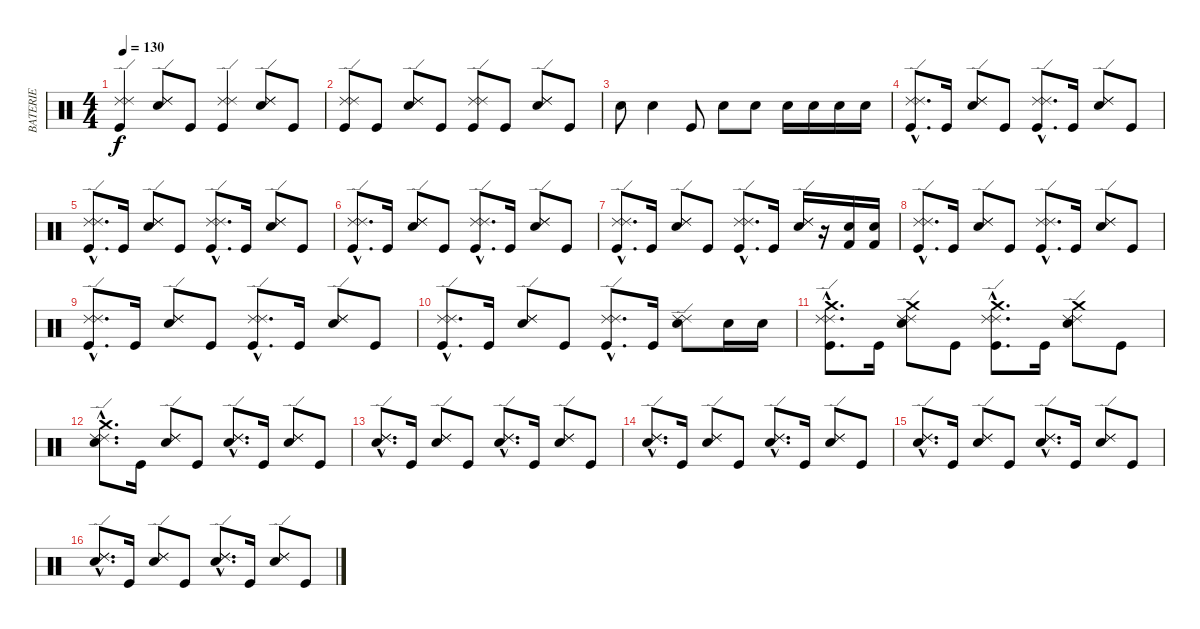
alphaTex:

\track ("BATERIE" "BATERIE") {instrument percussion}
\staff {score}
\articulation defaults
\ts (4 4)
\tempo 130
\clef neutral
\ks c
("Ride (edge) 2" "Ride (edge) 2" "Kick (hit)").4{dy f} ("Ride (edge) 2" "Ride (edge) 2" "Snare (hit) 2").8 "Kick (hit)".8 ("Ride (edge) 2" "Ride (edge) 2" "Kick (hit)").4 ("Ride (edge) 2" "Ride (edge) 2" "Snare (hit) 2").8 "Kick (hit)".8 |
("Ride (edge) 2" "Ride (edge) 2" "Kick (hit)").8 "Kick (hit)".8 ("Ride (edge) 2" "Ride (edge) 2" "Snare (hit) 2").8 "Kick (hit)".8 ("Ride (edge) 2" "Ride (edge) 2" "Kick (hit)").8 "Kick (hit)".8 ("Ride (edge) 2" "Ride (edge) 2" "Snare (hit) 2").8 "Kick (hit)".8 |
"Snare (hit) 2".8 "Snare (hit) 2".4 "Kick (hit)".8 "Snare (hit) 2".8 "Snare (hit) 2".8 "Snare (hit) 2".16 "Snare (hit) 2".16 "Snare (hit) 2".16 "Snare (hit) 2".16 |
("Ride (edge) 2"{hac} "Ride (edge) 2"{hac} "Kick (hit)"{hac}).8{d} "Kick (hit)".16 ("Ride (edge) 2" "Ride (edge) 2" "Snare (hit) 2").8 "Kick (hit)".8 ("Ride (edge) 2"{hac} "Ride (edge) 2"{hac} "Kick (hit)"{hac}).8{d} "Kick (hit)".16 ("Ride (edge) 2" "Ride (edge) 2" "Snare (hit) 2").8 "Kick (hit)".8 |
("Ride (edge) 2"{hac} "Ride (edge) 2"{hac} "Kick (hit)"{hac}).8{d} "Kick (hit)".16 ("Ride (edge) 2" "Ride (edge) 2" "Snare (hit) 2").8 "Kick (hit)".8 ("Ride (edge) 2"{hac} "Ride (edge) 2"{hac} "Kick (hit)"{hac}).8{d} "Kick (hit)".16 ("Ride (edge) 2" "Ride (edge) 2" "Snare (hit) 2").8 "Kick (hit)".8 |
("Ride (edge) 2"{hac} "Ride (edge) 2"{hac} "Kick (hit)"{hac}).8{d} "Kick (hit)".16 ("Ride (edge) 2" "Ride (edge) 2" "Snare (hit) 2").8 "Kick (hit)".8 ("Ride (edge) 2"{hac} "Ride (edge) 2"{hac} "Kick (hit)"{hac}).8{d} "Kick (hit)".16 ("Ride (edge) 2" "Ride (edge) 2" "Snare (hit) 2").8 "Kick (hit)".8 |
("Ride (edge) 2"{hac} "Ride (edge) 2"{hac} "Kick (hit)"{hac}).8{d} "Kick (hit)".16 ("Ride (edge) 2" "Ride (edge) 2" "Snare (hit) 2").8 "Kick (hit)".8 ("Ride (edge) 2"{hac} "Ride (edge) 2"{hac} "Kick (hit)"{hac}).8{d} "Kick (hit)".16 ("Ride (edge) 2" "Ride (edge) 2" "Snare (hit) 2").16 r.16 ("Kick (hit) 2" "Snare (hit) 2").16 ("Kick (hit) 2" "Snare (hit) 2").16 |
("Ride (edge) 2"{hac} "Ride (edge) 2"{hac} "Kick (hit)"{hac}).8{d} "Kick (hit)".16 ("Ride (edge) 2" "Ride (edge) 2" "Snare (hit) 2").8 "Kick (hit)".8 ("Ride (edge) 2"{hac} "Ride (edge) 2"{hac} "Kick (hit)"{hac}).8{d} "Kick (hit)".16 ("Ride (edge) 2" "Ride (edge) 2" "Snare (hit) 2").8 "Kick (hit)".8 |
("Ride (edge) 2"{hac} "Ride (edge) 2"{hac} "Kick (hit)"{hac}).8{d} "Kick (hit)".16 ("Ride (edge) 2" "Ride (edge) 2" "Snare (hit) 2").8 "Kick (hit)".8 ("Ride (edge) 2"{hac} "Ride (edge) 2"{hac} "Kick (hit)"{hac}).8{d} "Kick (hit)".16 ("Ride (edge) 2" "Ride (edge) 2" "Snare (hit) 2").8 "Kick (hit)".8 |
("Ride (edge) 2"{hac} "Ride (edge) 2"{hac} "Kick (hit)"{hac}).8{d} "Kick (hit)".16 ("Ride (edge) 2" "Ride (edge) 2" "Snare (hit) 2").8 "Kick (hit)".8 ("Ride (edge) 2"{hac} "Ride (edge) 2"{hac} "Kick (hit)"{hac}).8{d} "Kick (hit)".16 ("Ride (edge) 2" "Ride (edge) 2" "Snare (hit) 2").8 "Snare (hit) 2".16 "Snare (hit) 2".16 |
("Crash medium (hit)"{hac} "Ride (edge) 2"{hac} "Ride (edge) 2"{hac} "Kick (hit)"{hac}).8{d} "Kick (hit)".16 ("Crash medium (hit)" "Ride (edge) 2" "Ride (edge) 2" "Snare (hit) 2").8 "Kick (hit)".8 ("Crash medium (hit)"{hac} "Ride (edge) 2"{hac} "Ride (edge) 2"{hac} "Kick (hit)"{hac}).8{d} "Kick (hit)".16 ("Crash medium (hit)" "Ride (edge) 2" "Ride (edge) 2" "Snare (hit) 2").8 "Kick (hit)".8 |
("Crash medium (hit)"{hac} "Ride (edge) 2"{hac} "Ride (edge) 2"{hac} "Snare (hit) 2"{hac}).8{d} "Kick (hit)".16 ("Ride (edge) 2" "Ride (edge) 2" "Snare (hit) 2").8 "Kick (hit)".8 ("Ride (edge) 2"{hac} "Ride (edge) 2"{hac} "Snare (hit) 2"{hac}).8{d} "Kick (hit)".16 ("Ride (edge) 2" "Ride (edge) 2" "Snare (hit) 2").8 "Kick (hit)".8 |
("Ride (edge) 2"{hac} "Ride (edge) 2"{hac} "Snare (hit) 2"{hac}).8{d} "Kick (hit)".16 ("Ride (edge) 2" "Ride (edge) 2" "Snare (hit) 2").8 "Kick (hit)".8 ("Ride (edge) 2"{hac} "Ride (edge) 2"{hac} "Snare (hit) 2"{hac}).8{d} "Kick (hit)".16 ("Ride (edge) 2" "Ride (edge) 2" "Snare (hit) 2").8 "Kick (hit)".8 |
("Ride (edge) 2"{hac} "Ride (edge) 2"{hac} "Snare (hit) 2"{hac}).8{d} "Kick (hit)".16 ("Ride (edge) 2" "Ride (edge) 2" "Snare (hit) 2").8 "Kick (hit)".8 ("Ride (edge) 2"{hac} "Ride (edge) 2"{hac} "Snare (hit) 2"{hac}).8{d} "Kick (hit)".16 ("Ride (edge) 2" "Ride (edge) 2" "Snare (hit) 2").8 "Kick (hit)".8 |
("Ride (edge) 2"{hac} "Ride (edge) 2"{hac} "Snare (hit) 2"{hac}).8{d} "Kick (hit)".16 ("Ride (edge) 2" "Ride (edge) 2" "Snare (hit) 2").8 "Kick (hit)".8 ("Ride (edge) 2"{hac} "Ride (edge) 2"{hac} "Snare (hit) 2"{hac}).8{d} "Kick (hit)".16 ("Ride (edge) 2" "Ride (edge) 2" "Snare (hit) 2").8 "Kick (hit)".8 |
("Ride (edge) 2"{hac} "Ride (edge) 2"{hac} "Snare (hit) 2"{hac}).8{d} "Kick (hit)".16 ("Ride (edge) 2" "Ride (edge) 2" "Snare (hit) 2").8 "Kick (hit)".8 ("Ride (edge) 2"{hac} "Ride (edge) 2"{hac} "Snare (hit) 2"{hac}).8{d} "Kick (hit)".16 ("Ride (edge) 2" "Ride (edge) 2" "Snare (hit) 2").8 "Kick (hit)".8
